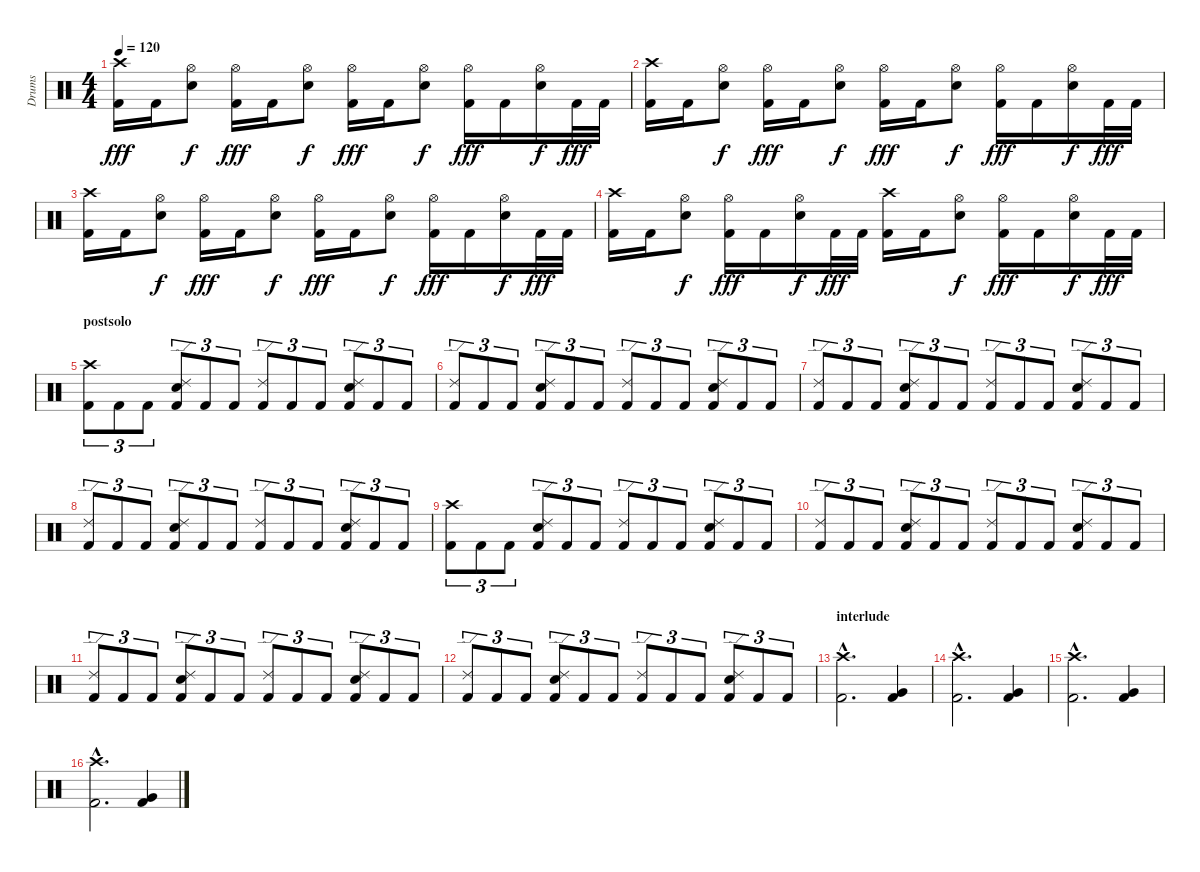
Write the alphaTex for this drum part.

\track ("Drums" "Drums") {instrument percussion}
\staff {score}
\articulation defaults
\ts (4 4)
\tempo 120
\clef neutral
\ks c
("Crash high (hit)" "Kick (hit) 2").16{dy fff} "Kick (hit) 2".16 ("Hi-Hat (open)" "Snare (hit) 2").8{dy f} ("Hi-Hat (open)" "Kick (hit) 2").16{dy fff} "Kick (hit) 2".16 ("Hi-Hat (open)" "Snare (hit) 2").8{dy f} ("Hi-Hat (open)" "Kick (hit) 2").16{dy fff} "Kick (hit) 2".16 ("Hi-Hat (open)" "Snare (hit) 2").8{dy f} ("Hi-Hat (open)" "Kick (hit) 2").16{dy fff} "Kick (hit) 2".16 ("Hi-Hat (open)" "Snare (hit) 2").16{dy f} "Kick (hit) 2".32{dy fff} "Kick (hit) 2".32 |
("Crash high (hit)" "Kick (hit) 2").16 "Kick (hit) 2".16 ("Hi-Hat (open)" "Snare (hit) 2").8{dy f} ("Hi-Hat (open)" "Kick (hit) 2").16{dy fff} "Kick (hit) 2".16 ("Hi-Hat (open)" "Snare (hit) 2").8{dy f} ("Hi-Hat (open)" "Kick (hit) 2").16{dy fff} "Kick (hit) 2".16 ("Hi-Hat (open)" "Snare (hit) 2").8{dy f} ("Hi-Hat (open)" "Kick (hit) 2").16{dy fff} "Kick (hit) 2".16 ("Hi-Hat (open)" "Snare (hit) 2").16{dy f} "Kick (hit) 2".32{dy fff} "Kick (hit) 2".32 |
("Crash high (hit)" "Kick (hit) 2").16 "Kick (hit) 2".16 ("Hi-Hat (open)" "Snare (hit) 2").8{dy f} ("Hi-Hat (open)" "Kick (hit) 2").16{dy fff} "Kick (hit) 2".16 ("Hi-Hat (open)" "Snare (hit) 2").8{dy f} ("Hi-Hat (open)" "Kick (hit) 2").16{dy fff} "Kick (hit) 2".16 ("Hi-Hat (open)" "Snare (hit) 2").8{dy f} ("Hi-Hat (open)" "Kick (hit) 2").16{dy fff} "Kick (hit) 2".16 ("Hi-Hat (open)" "Snare (hit) 2").16{dy f} "Kick (hit) 2".32{dy fff} "Kick (hit) 2".32 |
("Crash high (hit)" "Kick (hit) 2").16 "Kick (hit) 2".16 ("Hi-Hat (open)" "Snare (hit) 2").8{dy f} ("Hi-Hat (open)" "Kick (hit) 2").16{dy fff} "Kick (hit) 2".16 ("Hi-Hat (open)" "Snare (hit) 2").16{dy f} "Kick (hit) 2".32{dy fff} "Kick (hit) 2".32 ("Crash high (hit)" "Kick (hit) 2").16 "Kick (hit) 2".16 ("Hi-Hat (open)" "Snare (hit) 2").8{dy f} ("Hi-Hat (open)" "Kick (hit) 2").16{dy fff} "Kick (hit) 2".16 ("Hi-Hat (open)" "Snare (hit) 2").16{dy f} "Kick (hit) 2".32{dy fff} "Kick (hit) 2".32 |
\section ("" "postsolo")
("Crash high (hit)" "Kick (hit) 2").8{tu (3 2)} "Kick (hit) 2".8{tu (3 2)} "Kick (hit) 2".8{tu (3 2)} ("Ride (edge) 2" "Snare (hit) 2" "Kick (hit) 2").8{tu (3 2)} "Kick (hit) 2".8{tu (3 2)} "Kick (hit) 2".8{tu (3 2)} ("Ride (edge) 2" "Kick (hit) 2").8{tu (3 2)} "Kick (hit) 2".8{tu (3 2)} "Kick (hit) 2".8{tu (3 2)} ("Ride (edge) 2" "Snare (hit) 2" "Kick (hit) 2").8{tu (3 2)} "Kick (hit) 2".8{tu (3 2)} "Kick (hit) 2".8{tu (3 2)} |
("Ride (edge) 2" "Kick (hit) 2").8{tu (3 2)} "Kick (hit) 2".8{tu (3 2)} "Kick (hit) 2".8{tu (3 2)} ("Ride (edge) 2" "Snare (hit) 2" "Kick (hit) 2").8{tu (3 2)} "Kick (hit) 2".8{tu (3 2)} "Kick (hit) 2".8{tu (3 2)} ("Ride (edge) 2" "Kick (hit) 2").8{tu (3 2)} "Kick (hit) 2".8{tu (3 2)} "Kick (hit) 2".8{tu (3 2)} ("Ride (edge) 2" "Snare (hit) 2" "Kick (hit) 2").8{tu (3 2)} "Kick (hit) 2".8{tu (3 2)} "Kick (hit) 2".8{tu (3 2)} |
("Ride (edge) 2" "Kick (hit) 2").8{tu (3 2)} "Kick (hit) 2".8{tu (3 2)} "Kick (hit) 2".8{tu (3 2)} ("Ride (edge) 2" "Snare (hit) 2" "Kick (hit) 2").8{tu (3 2)} "Kick (hit) 2".8{tu (3 2)} "Kick (hit) 2".8{tu (3 2)} ("Ride (edge) 2" "Kick (hit) 2").8{tu (3 2)} "Kick (hit) 2".8{tu (3 2)} "Kick (hit) 2".8{tu (3 2)} ("Ride (edge) 2" "Snare (hit) 2" "Kick (hit) 2").8{tu (3 2)} "Kick (hit) 2".8{tu (3 2)} "Kick (hit) 2".8{tu (3 2)} |
("Ride (edge) 2" "Kick (hit) 2").8{tu (3 2)} "Kick (hit) 2".8{tu (3 2)} "Kick (hit) 2".8{tu (3 2)} ("Ride (edge) 2" "Snare (hit) 2" "Kick (hit) 2").8{tu (3 2)} "Kick (hit) 2".8{tu (3 2)} "Kick (hit) 2".8{tu (3 2)} ("Ride (edge) 2" "Kick (hit) 2").8{tu (3 2)} "Kick (hit) 2".8{tu (3 2)} "Kick (hit) 2".8{tu (3 2)} ("Ride (edge) 2" "Snare (hit) 2" "Kick (hit) 2").8{tu (3 2)} "Kick (hit) 2".8{tu (3 2)} "Kick (hit) 2".8{tu (3 2)} |
("Crash high (hit)" "Kick (hit) 2").8{tu (3 2)} "Kick (hit) 2".8{tu (3 2)} "Kick (hit) 2".8{tu (3 2)} ("Ride (edge) 2" "Snare (hit) 2" "Kick (hit) 2").8{tu (3 2)} "Kick (hit) 2".8{tu (3 2)} "Kick (hit) 2".8{tu (3 2)} ("Ride (edge) 2" "Kick (hit) 2").8{tu (3 2)} "Kick (hit) 2".8{tu (3 2)} "Kick (hit) 2".8{tu (3 2)} ("Ride (edge) 2" "Snare (hit) 2" "Kick (hit) 2").8{tu (3 2)} "Kick (hit) 2".8{tu (3 2)} "Kick (hit) 2".8{tu (3 2)} |
("Ride (edge) 2" "Kick (hit) 2").8{tu (3 2)} "Kick (hit) 2".8{tu (3 2)} "Kick (hit) 2".8{tu (3 2)} ("Ride (edge) 2" "Snare (hit) 2" "Kick (hit) 2").8{tu (3 2)} "Kick (hit) 2".8{tu (3 2)} "Kick (hit) 2".8{tu (3 2)} ("Ride (edge) 2" "Kick (hit) 2").8{tu (3 2)} "Kick (hit) 2".8{tu (3 2)} "Kick (hit) 2".8{tu (3 2)} ("Ride (edge) 2" "Snare (hit) 2" "Kick (hit) 2").8{tu (3 2)} "Kick (hit) 2".8{tu (3 2)} "Kick (hit) 2".8{tu (3 2)} |
("Ride (edge) 2" "Kick (hit) 2").8{tu (3 2)} "Kick (hit) 2".8{tu (3 2)} "Kick (hit) 2".8{tu (3 2)} ("Ride (edge) 2" "Snare (hit) 2" "Kick (hit) 2").8{tu (3 2)} "Kick (hit) 2".8{tu (3 2)} "Kick (hit) 2".8{tu (3 2)} ("Ride (edge) 2" "Kick (hit) 2").8{tu (3 2)} "Kick (hit) 2".8{tu (3 2)} "Kick (hit) 2".8{tu (3 2)} ("Ride (edge) 2" "Snare (hit) 2" "Kick (hit) 2").8{tu (3 2)} "Kick (hit) 2".8{tu (3 2)} "Kick (hit) 2".8{tu (3 2)} |
("Ride (edge) 2" "Kick (hit) 2").8{tu (3 2)} "Kick (hit) 2".8{tu (3 2)} "Kick (hit) 2".8{tu (3 2)} ("Ride (edge) 2" "Snare (hit) 2" "Kick (hit) 2").8{tu (3 2)} "Kick (hit) 2".8{tu (3 2)} "Kick (hit) 2".8{tu (3 2)} ("Ride (edge) 2" "Kick (hit) 2").8{tu (3 2)} "Kick (hit) 2".8{tu (3 2)} "Kick (hit) 2".8{tu (3 2)} ("Ride (edge) 2" "Snare (hit) 2" "Kick (hit) 2").8{tu (3 2)} "Kick (hit) 2".8{tu (3 2)} "Kick (hit) 2".8{tu (3 2)} |
\section ("" "interlude")
("Crash high (hit)"{hac} "Kick (hit) 2"{hac}).2{d} ("Very Low Tom (hit)" "Kick (hit) 2").4 |
("Crash high (hit)"{hac} "Kick (hit) 2"{hac}).2{d} ("Very Low Tom (hit)" "Kick (hit) 2").4 |
("Crash high (hit)"{hac} "Kick (hit) 2"{hac}).2{d} ("Very Low Tom (hit)" "Kick (hit) 2").4 |
("Crash high (hit)"{hac} "Kick (hit) 2"{hac}).2{d} ("Very Low Tom (hit)" "Kick (hit) 2").4
